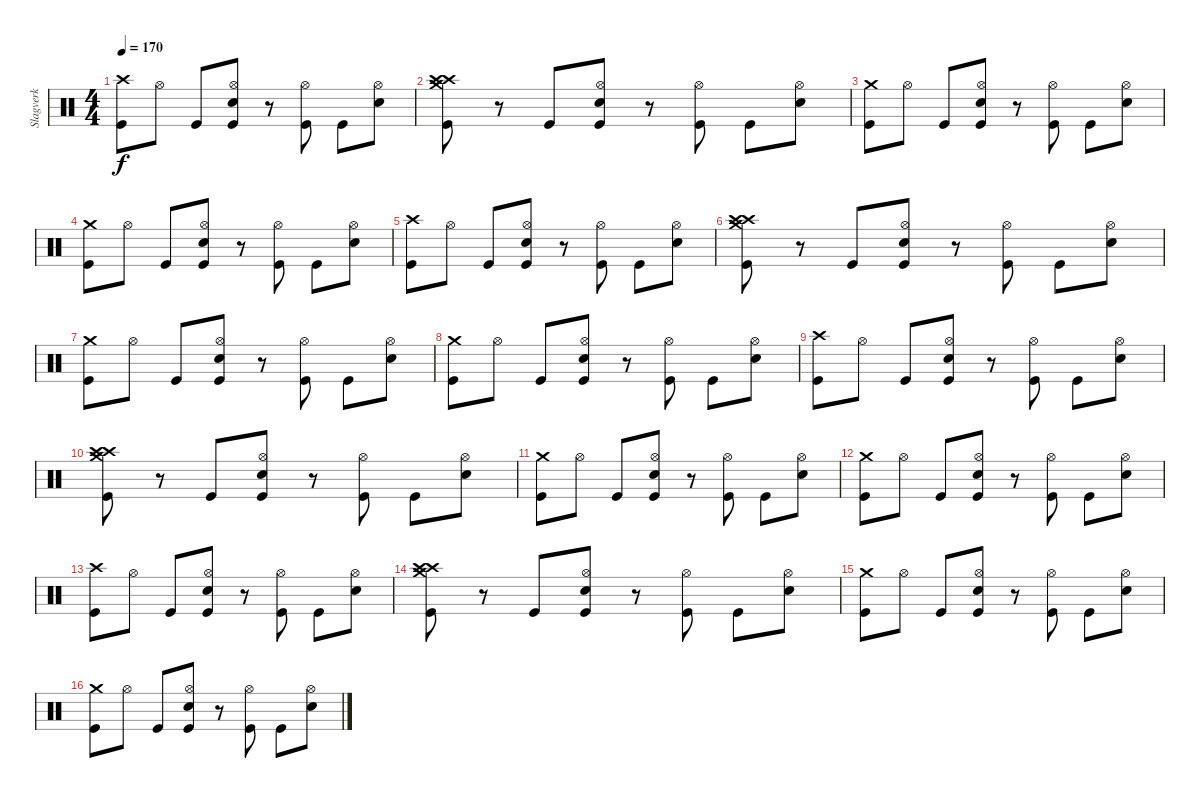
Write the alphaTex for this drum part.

\track ("Slagverk" "Slagverk") {instrument percussion}
\staff {score}
\articulation defaults
\ts (4 4)
\tempo 170
\clef neutral
\ks c
("Crash high (hit)" "Kick (hit)").8{dy f} "Hi-Hat (open)".8 "Kick (hit)".8 ("Hi-Hat (open)" "Snare (hit) 2" "Kick (hit)").8 r.8 ("Hi-Hat (open)" "Kick (hit)").8 "Kick (hit)".8 ("Hi-Hat (open)" "Snare (hit) 2").8 |
("Crash high (hit)" "Crash high (hit)" "Crash medium (hit)" "Kick (hit)").8 r.8 "Kick (hit)".8 ("Hi-Hat (open)" "Snare (hit) 2" "Kick (hit)").8 r.8 ("Hi-Hat (open)" "Kick (hit)").8 "Kick (hit)".8 ("Hi-Hat (open)" "Snare (hit) 2").8 |
("Crash medium (hit)" "Kick (hit)").8 "Hi-Hat (open)".8 "Kick (hit)".8 ("Hi-Hat (open)" "Snare (hit) 2" "Kick (hit)").8 r.8 ("Hi-Hat (open)" "Kick (hit)").8 "Kick (hit)".8 ("Hi-Hat (open)" "Snare (hit) 2").8 |
("Crash medium (hit)" "Kick (hit)").8 "Hi-Hat (open)".8 "Kick (hit)".8 ("Hi-Hat (open)" "Snare (hit) 2" "Kick (hit)").8 r.8 ("Hi-Hat (open)" "Kick (hit)").8 "Kick (hit)".8 ("Hi-Hat (open)" "Snare (hit) 2").8 |
("Crash high (hit)" "Kick (hit)").8 "Hi-Hat (open)".8 "Kick (hit)".8 ("Hi-Hat (open)" "Snare (hit) 2" "Kick (hit)").8 r.8 ("Hi-Hat (open)" "Kick (hit)").8 "Kick (hit)".8 ("Hi-Hat (open)" "Snare (hit) 2").8 |
("Crash high (hit)" "Crash high (hit)" "Crash medium (hit)" "Kick (hit)").8 r.8 "Kick (hit)".8 ("Hi-Hat (open)" "Snare (hit) 2" "Kick (hit)").8 r.8 ("Hi-Hat (open)" "Kick (hit)").8 "Kick (hit)".8 ("Hi-Hat (open)" "Snare (hit) 2").8 |
("Crash medium (hit)" "Kick (hit)").8 "Hi-Hat (open)".8 "Kick (hit)".8 ("Hi-Hat (open)" "Snare (hit) 2" "Kick (hit)").8 r.8 ("Hi-Hat (open)" "Kick (hit)").8 "Kick (hit)".8 ("Hi-Hat (open)" "Snare (hit) 2").8 |
("Crash medium (hit)" "Kick (hit)").8 "Hi-Hat (open)".8 "Kick (hit)".8 ("Hi-Hat (open)" "Snare (hit) 2" "Kick (hit)").8 r.8 ("Hi-Hat (open)" "Kick (hit)").8 "Kick (hit)".8 ("Hi-Hat (open)" "Snare (hit) 2").8 |
("Crash high (hit)" "Kick (hit)").8 "Hi-Hat (open)".8 "Kick (hit)".8 ("Hi-Hat (open)" "Snare (hit) 2" "Kick (hit)").8 r.8 ("Hi-Hat (open)" "Kick (hit)").8 "Kick (hit)".8 ("Hi-Hat (open)" "Snare (hit) 2").8 |
("Crash high (hit)" "Crash high (hit)" "Crash medium (hit)" "Kick (hit)").8 r.8 "Kick (hit)".8 ("Hi-Hat (open)" "Snare (hit) 2" "Kick (hit)").8 r.8 ("Hi-Hat (open)" "Kick (hit)").8 "Kick (hit)".8 ("Hi-Hat (open)" "Snare (hit) 2").8 |
("Crash medium (hit)" "Kick (hit)").8 "Hi-Hat (open)".8 "Kick (hit)".8 ("Hi-Hat (open)" "Snare (hit) 2" "Kick (hit)").8 r.8 ("Hi-Hat (open)" "Kick (hit)").8 "Kick (hit)".8 ("Hi-Hat (open)" "Snare (hit) 2").8 |
("Crash medium (hit)" "Kick (hit)").8 "Hi-Hat (open)".8 "Kick (hit)".8 ("Hi-Hat (open)" "Snare (hit) 2" "Kick (hit)").8 r.8 ("Hi-Hat (open)" "Kick (hit)").8 "Kick (hit)".8 ("Hi-Hat (open)" "Snare (hit) 2").8 |
("Crash high (hit)" "Kick (hit)").8 "Hi-Hat (open)".8 "Kick (hit)".8 ("Hi-Hat (open)" "Snare (hit) 2" "Kick (hit)").8 r.8 ("Hi-Hat (open)" "Kick (hit)").8 "Kick (hit)".8 ("Hi-Hat (open)" "Snare (hit) 2").8 |
("Crash high (hit)" "Crash high (hit)" "Crash medium (hit)" "Kick (hit)").8 r.8 "Kick (hit)".8 ("Hi-Hat (open)" "Snare (hit) 2" "Kick (hit)").8 r.8 ("Hi-Hat (open)" "Kick (hit)").8 "Kick (hit)".8 ("Hi-Hat (open)" "Snare (hit) 2").8 |
("Crash medium (hit)" "Kick (hit)").8 "Hi-Hat (open)".8 "Kick (hit)".8 ("Hi-Hat (open)" "Snare (hit) 2" "Kick (hit)").8 r.8 ("Hi-Hat (open)" "Kick (hit)").8 "Kick (hit)".8 ("Hi-Hat (open)" "Snare (hit) 2").8 |
("Crash medium (hit)" "Kick (hit)").8 "Hi-Hat (open)".8 "Kick (hit)".8 ("Hi-Hat (open)" "Snare (hit) 2" "Kick (hit)").8 r.8 ("Hi-Hat (open)" "Kick (hit)").8 "Kick (hit)".8 ("Hi-Hat (open)" "Snare (hit) 2").8
